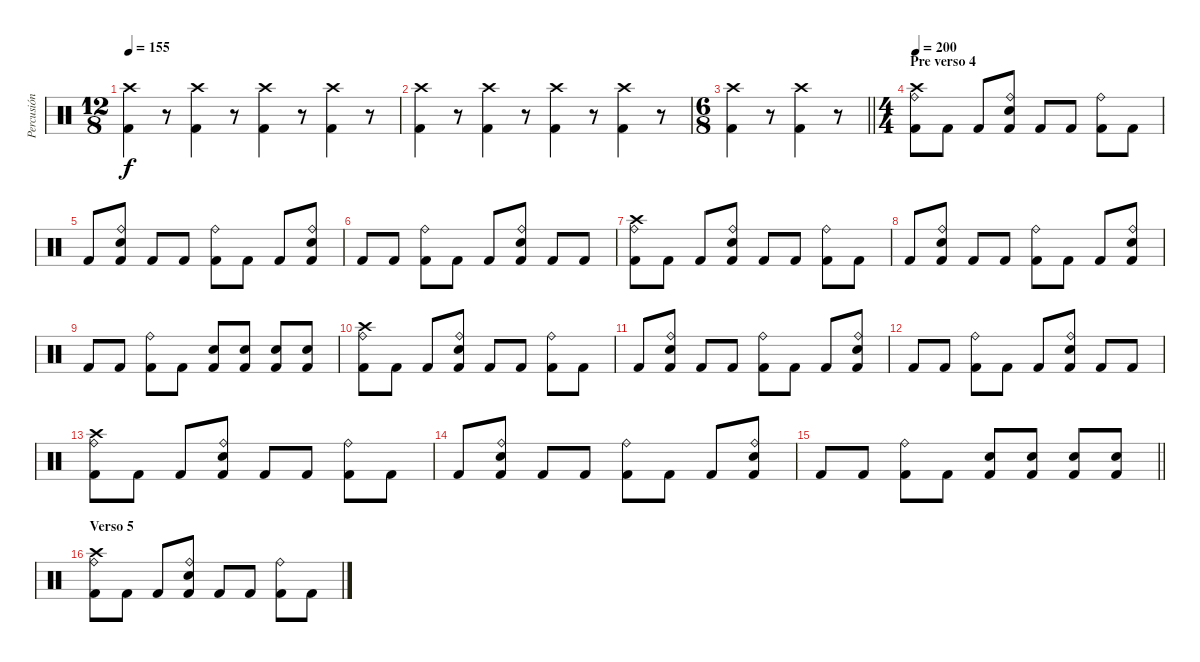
\track ("Percusión" "Percusión") {instrument percussion}
\staff {score}
\articulation defaults
\ts (12 8)
\tempo 155
\clef neutral
\ks c
("Crash high (hit)" "Kick (hit) 2").4{dy f} r.8 ("Crash high (hit)" "Kick (hit) 2").4 r.8 ("Crash high (hit)" "Kick (hit) 2").4 r.8 ("Crash high (hit)" "Kick (hit) 2").4 r.8 |
("Crash high (hit)" "Kick (hit) 2").4 r.8 ("Crash high (hit)" "Kick (hit) 2").4 r.8 ("Crash high (hit)" "Kick (hit) 2").4 r.8 ("Crash high (hit)" "Kick (hit) 2").4 r.8 |
\ts (6 8)
\barLineRight lightlight
("Crash high (hit)" "Kick (hit) 2").4 r.8 ("Crash high (hit)" "Kick (hit) 2").4 r.8 |
\ts (4 4)
\section ("" "Pre verso 4")
\tempo 200
("Ride (bell)" "Crash high (hit)" "Kick (hit) 2").8 "Kick (hit) 2".8 "Kick (hit) 2".8 ("Ride (bell)" "Snare (hit) 2" "Kick (hit) 2").8 "Kick (hit) 2".8 "Kick (hit) 2".8 ("Ride (bell)" "Kick (hit) 2").8 "Kick (hit) 2".8 |
"Kick (hit) 2".8 ("Ride (bell)" "Snare (hit) 2" "Kick (hit) 2").8 "Kick (hit) 2".8 "Kick (hit) 2".8 ("Ride (bell)" "Kick (hit) 2").8 "Kick (hit) 2".8 "Kick (hit) 2".8 ("Ride (bell)" "Snare (hit) 2" "Kick (hit) 2").8 |
"Kick (hit) 2".8 "Kick (hit) 2".8 ("Ride (bell)" "Kick (hit) 2").8 "Kick (hit) 2".8 "Kick (hit) 2".8 ("Ride (bell)" "Snare (hit) 2" "Kick (hit) 2").8 "Kick (hit) 2".8 "Kick (hit) 2".8 |
("Ride (bell)" "Crash high (hit)" "Kick (hit) 2").8 "Kick (hit) 2".8 "Kick (hit) 2".8 ("Ride (bell)" "Snare (hit) 2" "Kick (hit) 2").8 "Kick (hit) 2".8 "Kick (hit) 2".8 ("Ride (bell)" "Kick (hit) 2").8 "Kick (hit) 2".8 |
"Kick (hit) 2".8 ("Ride (bell)" "Snare (hit) 2" "Kick (hit) 2").8 "Kick (hit) 2".8 "Kick (hit) 2".8 ("Ride (bell)" "Kick (hit) 2").8 "Kick (hit) 2".8 "Kick (hit) 2".8 ("Ride (bell)" "Snare (hit) 2" "Kick (hit) 2").8 |
"Kick (hit) 2".8 "Kick (hit) 2".8 ("Ride (bell)" "Kick (hit) 2").8 "Kick (hit) 2".8 ("Snare (hit) 2" "Kick (hit) 2").8 ("Snare (hit) 2" "Kick (hit) 2").8 ("Snare (hit) 2" "Kick (hit) 2").8 ("Snare (hit) 2" "Kick (hit) 2").8 |
("Ride (bell)" "Crash high (hit)" "Kick (hit) 2").8 "Kick (hit) 2".8 "Kick (hit) 2".8 ("Ride (bell)" "Snare (hit) 2" "Kick (hit) 2").8 "Kick (hit) 2".8 "Kick (hit) 2".8 ("Ride (bell)" "Kick (hit) 2").8 "Kick (hit) 2".8 |
"Kick (hit) 2".8 ("Ride (bell)" "Snare (hit) 2" "Kick (hit) 2").8 "Kick (hit) 2".8 "Kick (hit) 2".8 ("Ride (bell)" "Kick (hit) 2").8 "Kick (hit) 2".8 "Kick (hit) 2".8 ("Ride (bell)" "Snare (hit) 2" "Kick (hit) 2").8 |
"Kick (hit) 2".8 "Kick (hit) 2".8 ("Ride (bell)" "Kick (hit) 2").8 "Kick (hit) 2".8 "Kick (hit) 2".8 ("Ride (bell)" "Snare (hit) 2" "Kick (hit) 2").8 "Kick (hit) 2".8 "Kick (hit) 2".8 |
("Ride (bell)" "Crash high (hit)" "Kick (hit) 2").8 "Kick (hit) 2".8 "Kick (hit) 2".8 ("Ride (bell)" "Snare (hit) 2" "Kick (hit) 2").8 "Kick (hit) 2".8 "Kick (hit) 2".8 ("Ride (bell)" "Kick (hit) 2").8 "Kick (hit) 2".8 |
"Kick (hit) 2".8 ("Ride (bell)" "Snare (hit) 2" "Kick (hit) 2").8 "Kick (hit) 2".8 "Kick (hit) 2".8 ("Ride (bell)" "Kick (hit) 2").8 "Kick (hit) 2".8 "Kick (hit) 2".8 ("Ride (bell)" "Snare (hit) 2" "Kick (hit) 2").8 |
\barLineRight lightlight "Kick (hit) 2".8 "Kick (hit) 2".8
("Ride (bell)" "Kick (hit) 2").8 "Kick (hit) 2".8 ("Snare (hit) 2" "Kick (hit) 2").8 ("Snare (hit) 2" "Kick (hit) 2").8 ("Snare (hit) 2" "Kick (hit) 2").8 ("Snare (hit) 2" "Kick (hit) 2").8 |
\section ("" "Verso 5")
("Ride (bell)" "Crash high (hit)" "Kick (hit) 2").8 "Kick (hit) 2".8 "Kick (hit) 2".8 ("Ride (bell)" "Snare (hit) 2" "Kick (hit) 2").8 "Kick (hit) 2".8 "Kick (hit) 2".8 ("Ride (bell)" "Kick (hit) 2").8 "Kick (hit) 2".8
